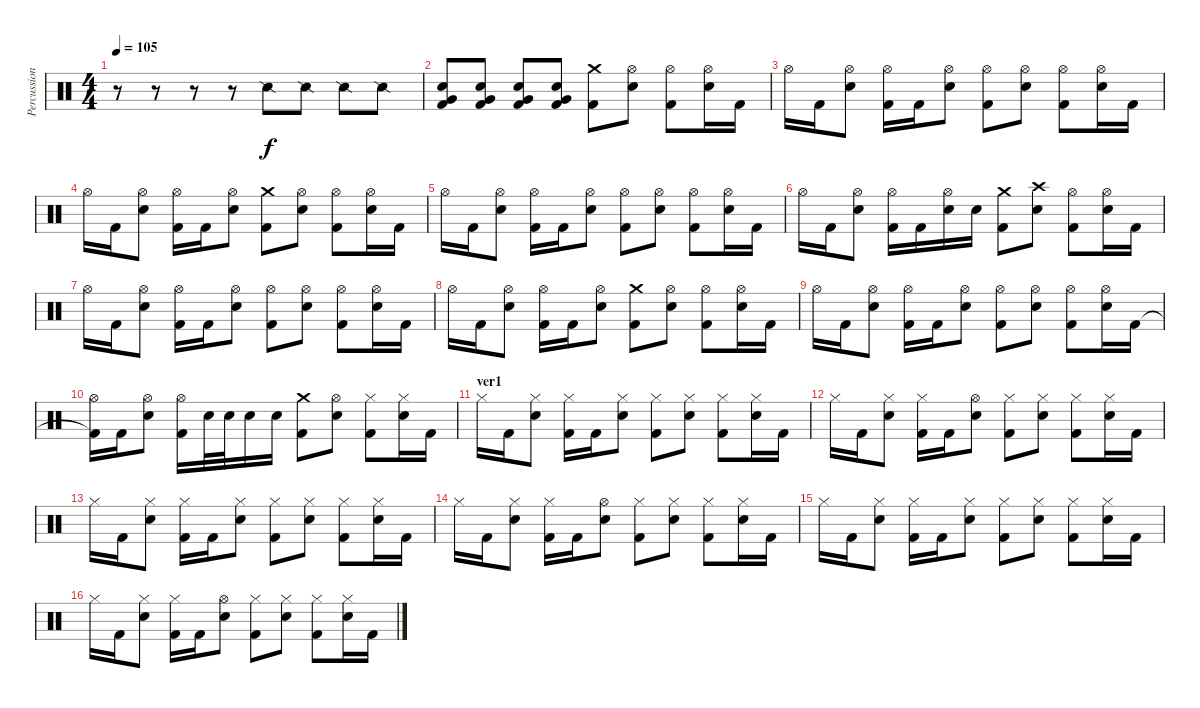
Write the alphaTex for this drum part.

\track ("Percussion" "Percussion") {instrument percussion}
\staff {score}
\articulation defaults
\ts (4 4)
\tempo 105
\clef neutral
\ks c
r.8{dy f} r.8 r.8 r.8 "Snare (side stick) 2".8 "Snare (side stick) 2".8 "Snare (side stick) 2".8 "Snare (side stick) 2".8 |
("Kick (hit) 2" "Very Low Tom (hit)" "Electric Snare (hit)").8 ("Kick (hit) 2" "Very Low Tom (hit)" "Electric Snare (hit)").8 ("Kick (hit) 2" "Very Low Tom (hit)" "Electric Snare (hit)").8 ("Kick (hit) 2" "Very Low Tom (hit)" "Electric Snare (hit)").8 ("Kick (hit) 2" "Crash medium (hit)").8 ("Electric Snare (hit)" "Hi-Hat (open)").8 ("Kick (hit) 2" "Hi-Hat (open)").8 ("Electric Snare (hit)" "Hi-Hat (open)").16 "Kick (hit) 2".16 |
"Hi-Hat (open)".16 "Kick (hit) 2".16 ("Electric Snare (hit)" "Hi-Hat (open)").8 ("Kick (hit) 2" "Hi-Hat (open)").16 "Kick (hit) 2".16 ("Electric Snare (hit)" "Hi-Hat (open)").8 ("Kick (hit) 2" "Hi-Hat (open)").8 ("Electric Snare (hit)" "Hi-Hat (open)").8 ("Kick (hit) 2" "Hi-Hat (open)").8 ("Electric Snare (hit)" "Hi-Hat (open)").16 "Kick (hit) 2".16 |
"Hi-Hat (open)".16 "Kick (hit) 2".16 ("Electric Snare (hit)" "Hi-Hat (open)").8 ("Kick (hit) 2" "Hi-Hat (open)").16 "Kick (hit) 2".16 ("Electric Snare (hit)" "Hi-Hat (open)").8 ("Kick (hit) 2" "Crash medium (hit)").8 ("Electric Snare (hit)" "Hi-Hat (open)").8 ("Kick (hit) 2" "Hi-Hat (open)").8 ("Electric Snare (hit)" "Hi-Hat (open)").16 "Kick (hit) 2".16 |
"Hi-Hat (open)".16 "Kick (hit) 2".16 ("Electric Snare (hit)" "Hi-Hat (open)").8 ("Kick (hit) 2" "Hi-Hat (open)").16 "Kick (hit) 2".16 ("Electric Snare (hit)" "Hi-Hat (open)").8 ("Kick (hit) 2" "Hi-Hat (open)").8 ("Electric Snare (hit)" "Hi-Hat (open)").8 ("Kick (hit) 2" "Hi-Hat (open)").8 ("Electric Snare (hit)" "Hi-Hat (open)").16 "Kick (hit) 2".16 |
"Hi-Hat (open)".16 "Kick (hit) 2".16 ("Electric Snare (hit)" "Hi-Hat (open)").8 ("Kick (hit) 2" "Hi-Hat (open)").16 "Kick (hit) 2".16 ("Electric Snare (hit)" "Hi-Hat (open)").16 "Electric Snare (hit)".16 ("Kick (hit) 2" "Crash medium (hit)").8 ("Electric Snare (hit)" "Crash high (hit)").8 ("Kick (hit) 2" "Hi-Hat (open)").8 ("Electric Snare (hit)" "Hi-Hat (open)").16 "Kick (hit) 2".16 |
"Hi-Hat (open)".16 "Kick (hit) 2".16 ("Electric Snare (hit)" "Hi-Hat (open)").8 ("Kick (hit) 2" "Hi-Hat (open)").16 "Kick (hit) 2".16 ("Electric Snare (hit)" "Hi-Hat (open)").8 ("Kick (hit) 2" "Hi-Hat (open)").8 ("Electric Snare (hit)" "Hi-Hat (open)").8 ("Kick (hit) 2" "Hi-Hat (open)").8 ("Electric Snare (hit)" "Hi-Hat (open)").16 "Kick (hit) 2".16 |
"Hi-Hat (open)".16 "Kick (hit) 2".16 ("Electric Snare (hit)" "Hi-Hat (open)").8 ("Kick (hit) 2" "Hi-Hat (open)").16 "Kick (hit) 2".16 ("Electric Snare (hit)" "Hi-Hat (open)").8 ("Kick (hit) 2" "Crash medium (hit)").8 ("Electric Snare (hit)" "Hi-Hat (open)").8 ("Kick (hit) 2" "Hi-Hat (open)").8 ("Electric Snare (hit)" "Hi-Hat (open)").16 "Kick (hit) 2".16 |
"Hi-Hat (open)".16 "Kick (hit) 2".16 ("Electric Snare (hit)" "Hi-Hat (open)").8 ("Kick (hit) 2" "Hi-Hat (open)").16 "Kick (hit) 2".16 ("Electric Snare (hit)" "Hi-Hat (open)").8 ("Kick (hit) 2" "Hi-Hat (open)").8 ("Electric Snare (hit)" "Hi-Hat (open)").8 ("Kick (hit) 2" "Hi-Hat (open)").8 ("Electric Snare (hit)" "Hi-Hat (open)").16 "Kick (hit) 2".16 |
("Kick (hit) 2"{t} "Hi-Hat (open)").16 "Kick (hit) 2".16 ("Electric Snare (hit)" "Hi-Hat (open)").8 ("Kick (hit) 2" "Hi-Hat (open)").16 "Electric Snare (hit)".32 "Electric Snare (hit)".32 "Electric Snare (hit)".16 "Electric Snare (hit)".16 ("Kick (hit) 2" "Crash medium (hit)").8 ("Electric Snare (hit)" "Hi-Hat (open)").8 ("Kick (hit) 2" "Hi-Hat (closed)").8 ("Electric Snare (hit)" "Hi-Hat (closed)").16 "Kick (hit) 2".16 |
\section ("" "ver1")
"Hi-Hat (closed)".16 "Kick (hit) 2".16 ("Electric Snare (hit)" "Hi-Hat (closed)").8 ("Kick (hit) 2" "Hi-Hat (closed)").16 "Kick (hit) 2".16 ("Electric Snare (hit)" "Hi-Hat (closed)").8 ("Kick (hit) 2" "Hi-Hat (closed)").8 ("Electric Snare (hit)" "Hi-Hat (closed)").8 ("Kick (hit) 2" "Hi-Hat (closed)").8 ("Electric Snare (hit)" "Hi-Hat (closed)").16 "Kick (hit) 2".16 |
"Hi-Hat (closed)".16 "Kick (hit) 2".16 ("Electric Snare (hit)" "Hi-Hat (closed)").8 ("Kick (hit) 2" "Hi-Hat (closed)").16 "Kick (hit) 2".16 ("Electric Snare (hit)" "Hi-Hat (open)").8 ("Kick (hit) 2" "Hi-Hat (closed)").8 ("Electric Snare (hit)" "Hi-Hat (closed)").8 ("Kick (hit) 2" "Hi-Hat (closed)").8 ("Electric Snare (hit)" "Hi-Hat (closed)").16 "Kick (hit) 2".16 |
"Hi-Hat (closed)".16 "Kick (hit) 2".16 ("Electric Snare (hit)" "Hi-Hat (closed)").8 ("Kick (hit) 2" "Hi-Hat (closed)").16 "Kick (hit) 2".16 ("Electric Snare (hit)" "Hi-Hat (closed)").8 ("Kick (hit) 2" "Hi-Hat (closed)").8 ("Electric Snare (hit)" "Hi-Hat (closed)").8 ("Kick (hit) 2" "Hi-Hat (closed)").8 ("Electric Snare (hit)" "Hi-Hat (closed)").16 "Kick (hit) 2".16 |
"Hi-Hat (closed)".16 "Kick (hit) 2".16 ("Electric Snare (hit)" "Hi-Hat (closed)").8 ("Kick (hit) 2" "Hi-Hat (closed)").16 "Kick (hit) 2".16 ("Electric Snare (hit)" "Hi-Hat (open)").8 ("Kick (hit) 2" "Hi-Hat (closed)").8 ("Electric Snare (hit)" "Hi-Hat (closed)").8 ("Kick (hit) 2" "Hi-Hat (closed)").8 ("Electric Snare (hit)" "Hi-Hat (closed)").16 "Kick (hit) 2".16 |
"Hi-Hat (closed)".16 "Kick (hit) 2".16 ("Electric Snare (hit)" "Hi-Hat (closed)").8 ("Kick (hit) 2" "Hi-Hat (closed)").16 "Kick (hit) 2".16 ("Electric Snare (hit)" "Hi-Hat (closed)").8 ("Kick (hit) 2" "Hi-Hat (closed)").8 ("Electric Snare (hit)" "Hi-Hat (closed)").8 ("Kick (hit) 2" "Hi-Hat (closed)").8 ("Electric Snare (hit)" "Hi-Hat (closed)").16 "Kick (hit) 2".16 |
"Hi-Hat (closed)".16 "Kick (hit) 2".16 ("Electric Snare (hit)" "Hi-Hat (closed)").8 ("Kick (hit) 2" "Hi-Hat (closed)").16 "Kick (hit) 2".16 ("Electric Snare (hit)" "Hi-Hat (open)").8 ("Kick (hit) 2" "Hi-Hat (closed)").8 ("Electric Snare (hit)" "Hi-Hat (closed)").8 ("Kick (hit) 2" "Hi-Hat (closed)").8 ("Electric Snare (hit)" "Hi-Hat (closed)").16 "Kick (hit) 2".16
